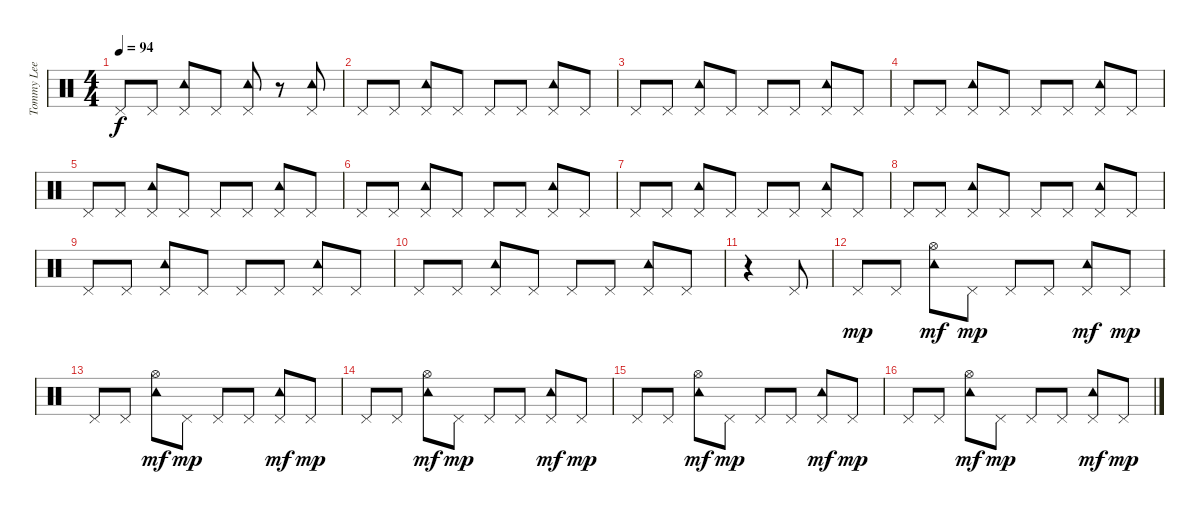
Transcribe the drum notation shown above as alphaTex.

\track ("Tommy Lee" "Tommy Lee") {instrument percussion}
\staff {score}
\articulation defaults
\ts (4 4)
\tempo 94
\clef neutral
\ks c "Pedal Hi-Hat (hit)".8{dy f} "Pedal Hi-Hat (hit)".8
("Pedal Hi-Hat (hit)" "Tambourine (hit)").8 "Pedal Hi-Hat (hit)".8 ("Pedal Hi-Hat (hit)" "Tambourine (hit)").8 r.8 ("Pedal Hi-Hat (hit)" "Tambourine (hit)").8 |
"Pedal Hi-Hat (hit)".8 "Pedal Hi-Hat (hit)".8 ("Pedal Hi-Hat (hit)" "Tambourine (hit)").8 "Pedal Hi-Hat (hit)".8 "Pedal Hi-Hat (hit)".8 "Pedal Hi-Hat (hit)".8 ("Pedal Hi-Hat (hit)" "Tambourine (hit)").8 "Pedal Hi-Hat (hit)".8 |
"Pedal Hi-Hat (hit)".8 "Pedal Hi-Hat (hit)".8 ("Pedal Hi-Hat (hit)" "Tambourine (hit)").8 "Pedal Hi-Hat (hit)".8 "Pedal Hi-Hat (hit)".8 "Pedal Hi-Hat (hit)".8 ("Pedal Hi-Hat (hit)" "Tambourine (hit)").8 "Pedal Hi-Hat (hit)".8 |
"Pedal Hi-Hat (hit)".8 "Pedal Hi-Hat (hit)".8 ("Pedal Hi-Hat (hit)" "Tambourine (hit)").8 "Pedal Hi-Hat (hit)".8 "Pedal Hi-Hat (hit)".8 "Pedal Hi-Hat (hit)".8 ("Pedal Hi-Hat (hit)" "Tambourine (hit)").8 "Pedal Hi-Hat (hit)".8 |
"Pedal Hi-Hat (hit)".8 "Pedal Hi-Hat (hit)".8 ("Pedal Hi-Hat (hit)" "Tambourine (hit)").8 "Pedal Hi-Hat (hit)".8 "Pedal Hi-Hat (hit)".8 "Pedal Hi-Hat (hit)".8 ("Pedal Hi-Hat (hit)" "Tambourine (hit)").8 "Pedal Hi-Hat (hit)".8 |
"Pedal Hi-Hat (hit)".8 "Pedal Hi-Hat (hit)".8 ("Pedal Hi-Hat (hit)" "Tambourine (hit)").8 "Pedal Hi-Hat (hit)".8 "Pedal Hi-Hat (hit)".8 "Pedal Hi-Hat (hit)".8 ("Pedal Hi-Hat (hit)" "Tambourine (hit)").8 "Pedal Hi-Hat (hit)".8 |
"Pedal Hi-Hat (hit)".8 "Pedal Hi-Hat (hit)".8 ("Pedal Hi-Hat (hit)" "Tambourine (hit)").8 "Pedal Hi-Hat (hit)".8 "Pedal Hi-Hat (hit)".8 "Pedal Hi-Hat (hit)".8 ("Pedal Hi-Hat (hit)" "Tambourine (hit)").8 "Pedal Hi-Hat (hit)".8 |
"Pedal Hi-Hat (hit)".8 "Pedal Hi-Hat (hit)".8 ("Pedal Hi-Hat (hit)" "Tambourine (hit)").8 "Pedal Hi-Hat (hit)".8 "Pedal Hi-Hat (hit)".8 "Pedal Hi-Hat (hit)".8 ("Pedal Hi-Hat (hit)" "Tambourine (hit)").8 "Pedal Hi-Hat (hit)".8 |
"Pedal Hi-Hat (hit)".8 "Pedal Hi-Hat (hit)".8 ("Pedal Hi-Hat (hit)" "Tambourine (hit)").8 "Pedal Hi-Hat (hit)".8 "Pedal Hi-Hat (hit)".8 "Pedal Hi-Hat (hit)".8 ("Pedal Hi-Hat (hit)" "Tambourine (hit)").8 "Pedal Hi-Hat (hit)".8 |
"Pedal Hi-Hat (hit)".8 "Pedal Hi-Hat (hit)".8 ("Pedal Hi-Hat (hit)" "Tambourine (hit)").8 "Pedal Hi-Hat (hit)".8 "Pedal Hi-Hat (hit)".8 "Pedal Hi-Hat (hit)".8 ("Pedal Hi-Hat (hit)" "Tambourine (hit)").8 "Pedal Hi-Hat (hit)".8 |
r.4 "Pedal Hi-Hat (hit)".8 |
"Pedal Hi-Hat (hit)".8{dy mp} "Pedal Hi-Hat (hit)".8 ("Hi-Hat (open)" "Tambourine (hit)").8{dy mf} "Pedal Hi-Hat (hit)".8{dy mp} "Pedal Hi-Hat (hit)".8 "Pedal Hi-Hat (hit)".8 ("Pedal Hi-Hat (hit)" "Tambourine (hit)").8{dy mf} "Pedal Hi-Hat (hit)".8{dy mp} |
"Pedal Hi-Hat (hit)".8 "Pedal Hi-Hat (hit)".8 ("Hi-Hat (open)" "Tambourine (hit)").8{dy mf} "Pedal Hi-Hat (hit)".8{dy mp} "Pedal Hi-Hat (hit)".8 "Pedal Hi-Hat (hit)".8 ("Pedal Hi-Hat (hit)" "Tambourine (hit)").8{dy mf} "Pedal Hi-Hat (hit)".8{dy mp} |
"Pedal Hi-Hat (hit)".8 "Pedal Hi-Hat (hit)".8 ("Hi-Hat (open)" "Tambourine (hit)").8{dy mf} "Pedal Hi-Hat (hit)".8{dy mp} "Pedal Hi-Hat (hit)".8 "Pedal Hi-Hat (hit)".8 ("Pedal Hi-Hat (hit)" "Tambourine (hit)").8{dy mf} "Pedal Hi-Hat (hit)".8{dy mp} |
"Pedal Hi-Hat (hit)".8 "Pedal Hi-Hat (hit)".8 ("Hi-Hat (open)" "Tambourine (hit)").8{dy mf} "Pedal Hi-Hat (hit)".8{dy mp} "Pedal Hi-Hat (hit)".8 "Pedal Hi-Hat (hit)".8 ("Pedal Hi-Hat (hit)" "Tambourine (hit)").8{dy mf} "Pedal Hi-Hat (hit)".8{dy mp} |
"Pedal Hi-Hat (hit)".8 "Pedal Hi-Hat (hit)".8 ("Hi-Hat (open)" "Tambourine (hit)").8{dy mf} "Pedal Hi-Hat (hit)".8{dy mp} "Pedal Hi-Hat (hit)".8 "Pedal Hi-Hat (hit)".8 ("Pedal Hi-Hat (hit)" "Tambourine (hit)").8{dy mf} "Pedal Hi-Hat (hit)".8{dy mp}
